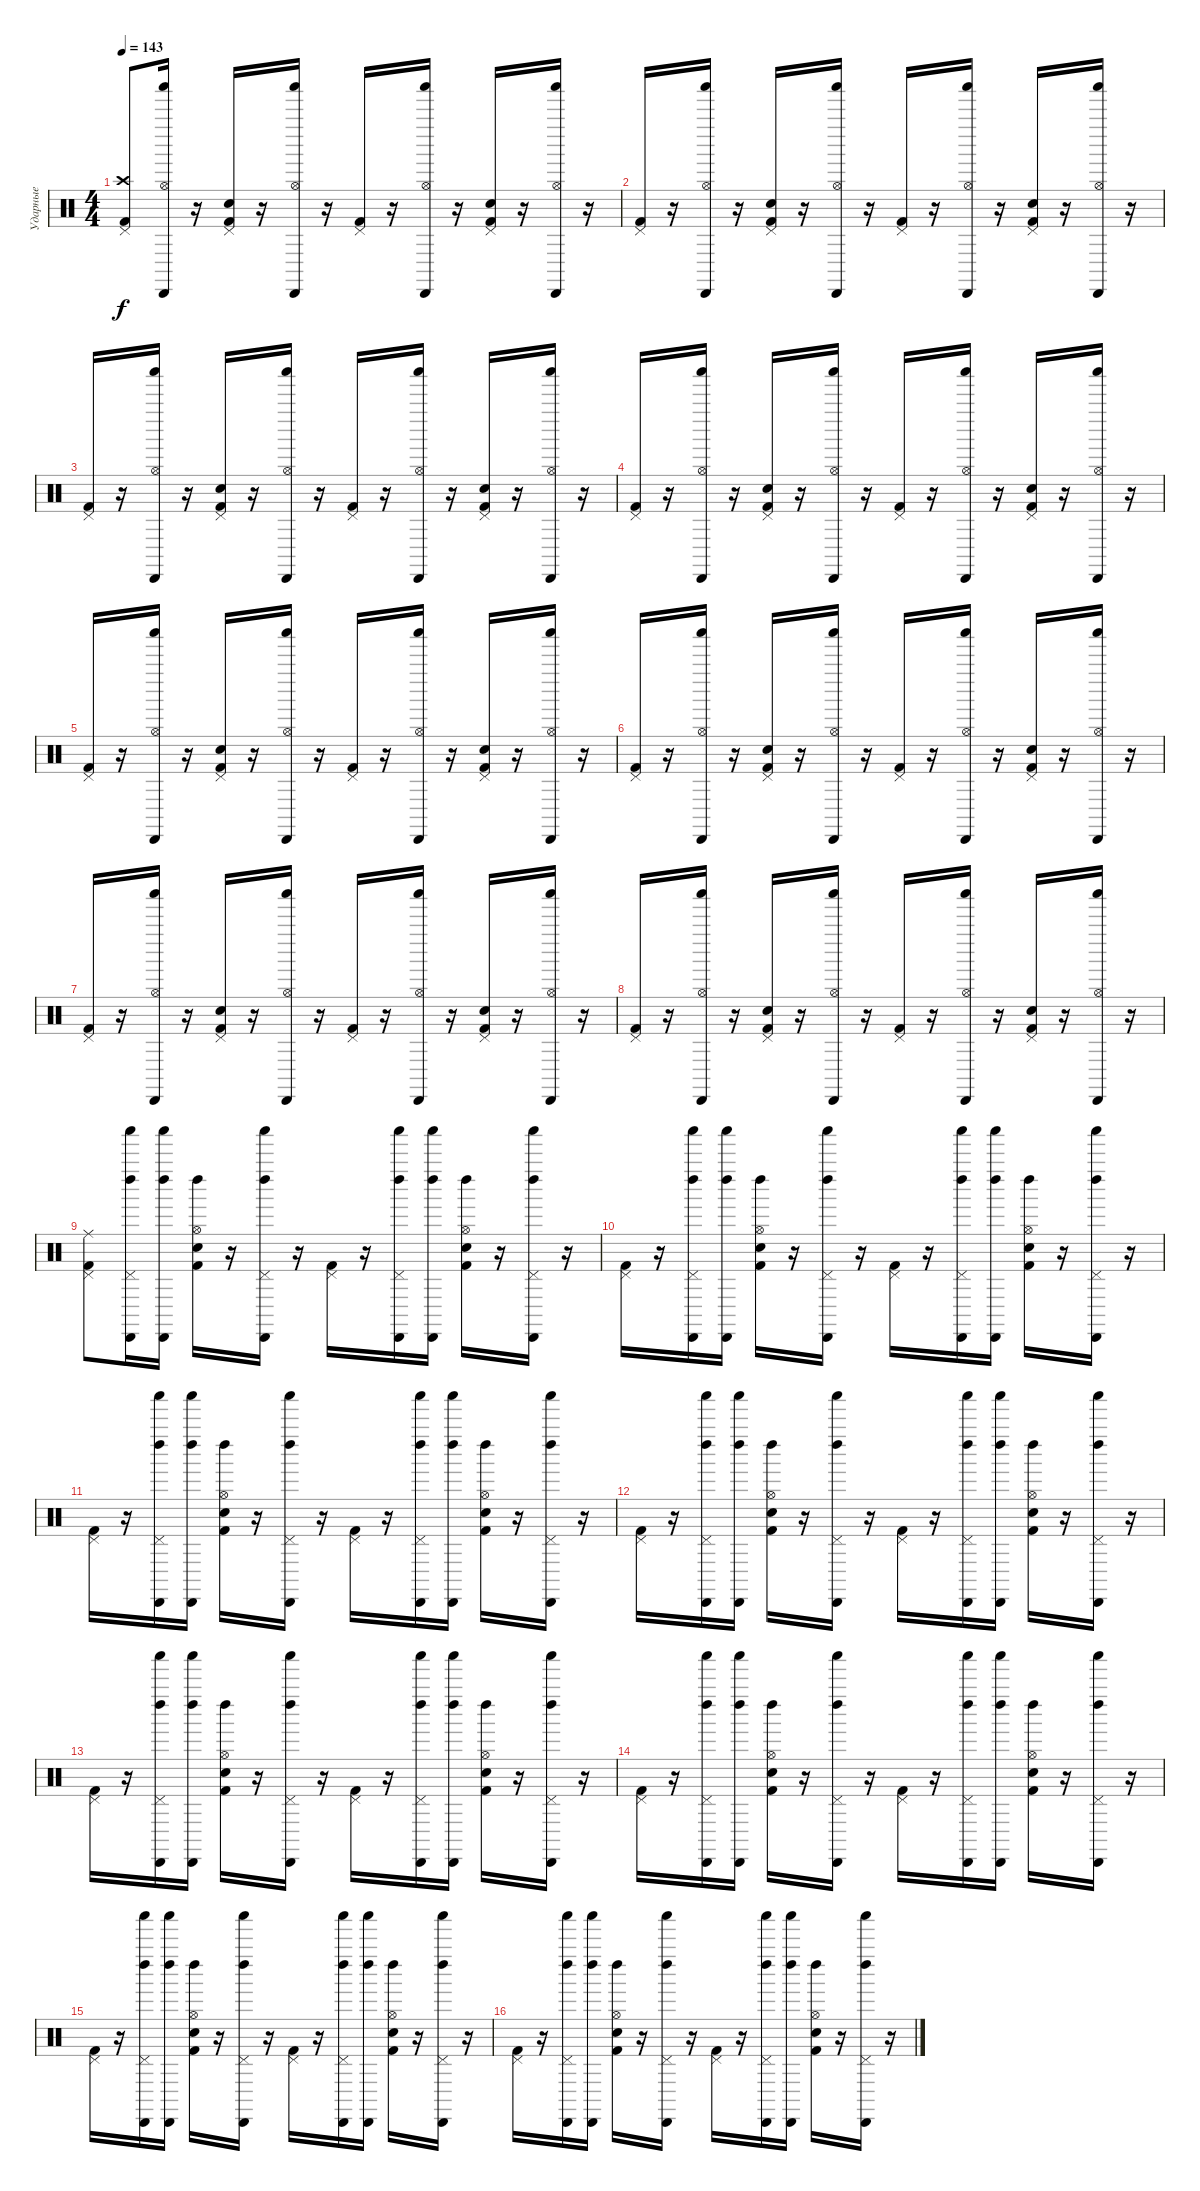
\track ("Ударные" "Ударные") {instrument percussion}
\staff {score}
\articulation defaults
\ts (4 4)
\tempo 143
\clef neutral
\ks c
("Crash high (hit)" "Kick (hit) 2" "Pedal Hi-Hat (hit)").8{dy f} ("Hi-Hat (open)" "Shaker (hit)" "Cabasa (hit)").16 r.16 ("Kick (hit) 2" "Snare (hit) 2" "Pedal Hi-Hat (hit)").16 r.16 ("Hi-Hat (open)" "Shaker (hit)" "Cabasa (hit)").16 r.16 ("Kick (hit) 2" "Pedal Hi-Hat (hit)").16 r.16 ("Hi-Hat (open)" "Shaker (hit)" "Cabasa (hit)").16 r.16 ("Snare (hit) 2" "Kick (hit) 2" "Pedal Hi-Hat (hit)").16 r.16 ("Hi-Hat (open)" "Shaker (hit)" "Cabasa (hit)").16 r.16 |
("Kick (hit) 2" "Pedal Hi-Hat (hit)").16 r.16 ("Hi-Hat (open)" "Shaker (hit)" "Cabasa (hit)").16 r.16 ("Kick (hit) 2" "Snare (hit) 2" "Pedal Hi-Hat (hit)").16 r.16 ("Hi-Hat (open)" "Shaker (hit)" "Cabasa (hit)").16 r.16 ("Kick (hit) 2" "Pedal Hi-Hat (hit)").16 r.16 ("Hi-Hat (open)" "Shaker (hit)" "Cabasa (hit)").16 r.16 ("Snare (hit) 2" "Kick (hit) 2" "Pedal Hi-Hat (hit)").16 r.16 ("Hi-Hat (open)" "Shaker (hit)" "Cabasa (hit)").16 r.16 |
("Kick (hit) 2" "Pedal Hi-Hat (hit)").16 r.16 ("Hi-Hat (open)" "Shaker (hit)" "Cabasa (hit)").16 r.16 ("Snare (hit) 2" "Kick (hit) 2" "Pedal Hi-Hat (hit)").16 r.16 ("Hi-Hat (open)" "Shaker (hit)" "Cabasa (hit)").16 r.16 ("Kick (hit) 2" "Pedal Hi-Hat (hit)").16 r.16 ("Hi-Hat (open)" "Shaker (hit)" "Cabasa (hit)").16 r.16 ("Snare (hit) 2" "Kick (hit) 2" "Pedal Hi-Hat (hit)").16 r.16 ("Hi-Hat (open)" "Shaker (hit)" "Cabasa (hit)").16 r.16 |
("Kick (hit) 2" "Pedal Hi-Hat (hit)").16 r.16 ("Hi-Hat (open)" "Shaker (hit)" "Cabasa (hit)").16 r.16 ("Snare (hit) 2" "Kick (hit) 2" "Pedal Hi-Hat (hit)").16 r.16 ("Hi-Hat (open)" "Shaker (hit)" "Cabasa (hit)").16 r.16 ("Kick (hit) 2" "Pedal Hi-Hat (hit)").16 r.16 ("Hi-Hat (open)" "Shaker (hit)" "Cabasa (hit)").16 r.16 ("Kick (hit) 2" "Snare (hit) 2" "Pedal Hi-Hat (hit)").16 r.16 ("Hi-Hat (open)" "Shaker (hit)" "Cabasa (hit)").16 r.16 |
("Kick (hit) 2" "Pedal Hi-Hat (hit)").16 r.16 ("Hi-Hat (open)" "Shaker (hit)" "Cabasa (hit)").16 r.16 ("Snare (hit) 2" "Kick (hit) 2" "Pedal Hi-Hat (hit)").16 r.16 ("Hi-Hat (open)" "Shaker (hit)" "Cabasa (hit)").16 r.16 ("Kick (hit) 2" "Pedal Hi-Hat (hit)").16 r.16 ("Hi-Hat (open)" "Shaker (hit)" "Cabasa (hit)").16 r.16 ("Snare (hit) 2" "Kick (hit) 2" "Pedal Hi-Hat (hit)").16 r.16 ("Hi-Hat (open)" "Shaker (hit)" "Cabasa (hit)").16 r.16 |
("Kick (hit) 2" "Pedal Hi-Hat (hit)").16 r.16 ("Hi-Hat (open)" "Shaker (hit)" "Cabasa (hit)").16 r.16 ("Kick (hit) 2" "Snare (hit) 2" "Pedal Hi-Hat (hit)").16 r.16 ("Hi-Hat (open)" "Shaker (hit)" "Cabasa (hit)").16 r.16 ("Kick (hit) 2" "Pedal Hi-Hat (hit)").16 r.16 ("Hi-Hat (open)" "Shaker (hit)" "Cabasa (hit)").16 r.16 ("Kick (hit) 2" "Snare (hit) 2" "Pedal Hi-Hat (hit)").16 r.16 ("Hi-Hat (open)" "Shaker (hit)" "Cabasa (hit)").16 r.16 |
("Kick (hit) 2" "Pedal Hi-Hat (hit)").16 r.16 ("Hi-Hat (open)" "Shaker (hit)" "Cabasa (hit)").16 r.16 ("Snare (hit) 2" "Kick (hit) 2" "Pedal Hi-Hat (hit)").16 r.16 ("Hi-Hat (open)" "Shaker (hit)" "Cabasa (hit)").16 r.16 ("Kick (hit) 2" "Pedal Hi-Hat (hit)").16 r.16 ("Hi-Hat (open)" "Shaker (hit)" "Cabasa (hit)").16 r.16 ("Snare (hit) 2" "Kick (hit) 2" "Pedal Hi-Hat (hit)").16 r.16 ("Hi-Hat (open)" "Shaker (hit)" "Cabasa (hit)").16 r.16 |
("Kick (hit) 2" "Pedal Hi-Hat (hit)").16 r.16 ("Hi-Hat (open)" "Shaker (hit)" "Cabasa (hit)").16 r.16 ("Kick (hit) 2" "Snare (hit) 2" "Pedal Hi-Hat (hit)").16 r.16 ("Hi-Hat (open)" "Shaker (hit)" "Cabasa (hit)").16 r.16 ("Kick (hit) 2" "Pedal Hi-Hat (hit)").16 r.16 ("Hi-Hat (open)" "Shaker (hit)" "Cabasa (hit)").16 r.16 ("Kick (hit) 2" "Snare (hit) 2" "Pedal Hi-Hat (hit)").16 r.16 ("Hi-Hat (open)" "Shaker (hit)" "Cabasa (hit)").16 r.16 |
("Ride (middle)" "Kick (hit) 2" "Pedal Hi-Hat (hit)").8 ("Pedal Hi-Hat (hit)" "Left Maraca (hit)" "Shaker (hit)" "Cabasa (hit)").16 ("Left Maraca (hit)" "Shaker (hit)" "Cabasa (hit)").16 ("Kick (hit) 2" "Snare (hit) 2" "Hi-Hat (open)" "Left Maraca (hit)").16 r.16 ("Pedal Hi-Hat (hit)" "Left Maraca (hit)" "Shaker (hit)" "Cabasa (hit)").16 r.16 ("Kick (hit) 2" "Pedal Hi-Hat (hit)").16 r.16 ("Pedal Hi-Hat (hit)" "Left Maraca (hit)" "Shaker (hit)" "Cabasa (hit)").16 ("Left Maraca (hit)" "Shaker (hit)" "Cabasa (hit)").16 ("Snare (hit) 2" "Kick (hit) 2" "Hi-Hat (open)" "Left Maraca (hit)").16 r.16 ("Pedal Hi-Hat (hit)" "Left Maraca (hit)" "Shaker (hit)" "Cabasa (hit)").16 r.16 |
("Kick (hit) 2" "Pedal Hi-Hat (hit)").16 r.16 ("Pedal Hi-Hat (hit)" "Left Maraca (hit)" "Shaker (hit)" "Cabasa (hit)").16 ("Left Maraca (hit)" "Shaker (hit)" "Cabasa (hit)").16 ("Kick (hit) 2" "Snare (hit) 2" "Hi-Hat (open)" "Left Maraca (hit)").16 r.16 ("Pedal Hi-Hat (hit)" "Left Maraca (hit)" "Shaker (hit)" "Cabasa (hit)").16 r.16 ("Kick (hit) 2" "Pedal Hi-Hat (hit)").16 r.16 ("Pedal Hi-Hat (hit)" "Left Maraca (hit)" "Shaker (hit)" "Cabasa (hit)").16 ("Left Maraca (hit)" "Shaker (hit)" "Cabasa (hit)").16 ("Kick (hit) 2" "Snare (hit) 2" "Hi-Hat (open)" "Left Maraca (hit)").16 r.16 ("Pedal Hi-Hat (hit)" "Left Maraca (hit)" "Shaker (hit)" "Cabasa (hit)").16 r.16 |
("Kick (hit) 2" "Pedal Hi-Hat (hit)").16 r.16 ("Pedal Hi-Hat (hit)" "Left Maraca (hit)" "Shaker (hit)" "Cabasa (hit)").16 ("Left Maraca (hit)" "Shaker (hit)" "Cabasa (hit)").16 ("Kick (hit) 2" "Snare (hit) 2" "Hi-Hat (open)" "Left Maraca (hit)").16 r.16 ("Pedal Hi-Hat (hit)" "Left Maraca (hit)" "Shaker (hit)" "Cabasa (hit)").16 r.16 ("Kick (hit) 2" "Pedal Hi-Hat (hit)").16 r.16 ("Pedal Hi-Hat (hit)" "Left Maraca (hit)" "Shaker (hit)" "Cabasa (hit)").16 ("Left Maraca (hit)" "Shaker (hit)" "Cabasa (hit)").16 ("Snare (hit) 2" "Kick (hit) 2" "Hi-Hat (open)" "Left Maraca (hit)").16 r.16 ("Pedal Hi-Hat (hit)" "Left Maraca (hit)" "Shaker (hit)" "Cabasa (hit)").16 r.16 |
("Kick (hit) 2" "Pedal Hi-Hat (hit)").16 r.16 ("Pedal Hi-Hat (hit)" "Left Maraca (hit)" "Shaker (hit)" "Cabasa (hit)").16 ("Left Maraca (hit)" "Shaker (hit)" "Cabasa (hit)").16 ("Kick (hit) 2" "Snare (hit) 2" "Hi-Hat (open)" "Left Maraca (hit)").16 r.16 ("Pedal Hi-Hat (hit)" "Left Maraca (hit)" "Shaker (hit)" "Cabasa (hit)").16 r.16 ("Kick (hit) 2" "Pedal Hi-Hat (hit)").16 r.16 ("Pedal Hi-Hat (hit)" "Left Maraca (hit)" "Shaker (hit)" "Cabasa (hit)").16 ("Left Maraca (hit)" "Shaker (hit)" "Cabasa (hit)").16 ("Snare (hit) 2" "Kick (hit) 2" "Hi-Hat (open)" "Left Maraca (hit)").16 r.16 ("Pedal Hi-Hat (hit)" "Left Maraca (hit)" "Shaker (hit)" "Cabasa (hit)").16 r.16 |
("Kick (hit) 2" "Pedal Hi-Hat (hit)").16 r.16 ("Pedal Hi-Hat (hit)" "Left Maraca (hit)" "Shaker (hit)" "Cabasa (hit)").16 ("Left Maraca (hit)" "Shaker (hit)" "Cabasa (hit)").16 ("Snare (hit) 2" "Kick (hit) 2" "Hi-Hat (open)" "Left Maraca (hit)").16 r.16 ("Pedal Hi-Hat (hit)" "Left Maraca (hit)" "Shaker (hit)" "Cabasa (hit)").16 r.16 ("Kick (hit) 2" "Pedal Hi-Hat (hit)").16 r.16 ("Pedal Hi-Hat (hit)" "Left Maraca (hit)" "Shaker (hit)" "Cabasa (hit)").16 ("Left Maraca (hit)" "Shaker (hit)" "Cabasa (hit)").16 ("Snare (hit) 2" "Kick (hit) 2" "Hi-Hat (open)" "Left Maraca (hit)").16 r.16 ("Pedal Hi-Hat (hit)" "Left Maraca (hit)" "Shaker (hit)" "Cabasa (hit)").16 r.16 |
("Kick (hit) 2" "Pedal Hi-Hat (hit)").16 r.16 ("Pedal Hi-Hat (hit)" "Left Maraca (hit)" "Shaker (hit)" "Cabasa (hit)").16 ("Left Maraca (hit)" "Shaker (hit)" "Cabasa (hit)").16 ("Snare (hit) 2" "Kick (hit) 2" "Hi-Hat (open)" "Left Maraca (hit)").16 r.16 ("Pedal Hi-Hat (hit)" "Left Maraca (hit)" "Shaker (hit)" "Cabasa (hit)").16 r.16 ("Kick (hit) 2" "Pedal Hi-Hat (hit)").16 r.16 ("Pedal Hi-Hat (hit)" "Left Maraca (hit)" "Shaker (hit)" "Cabasa (hit)").16 ("Left Maraca (hit)" "Shaker (hit)" "Cabasa (hit)").16 ("Snare (hit) 2" "Kick (hit) 2" "Hi-Hat (open)" "Left Maraca (hit)").16 r.16 ("Pedal Hi-Hat (hit)" "Left Maraca (hit)" "Shaker (hit)" "Cabasa (hit)").16 r.16 |
("Kick (hit) 2" "Pedal Hi-Hat (hit)").16 r.16 ("Pedal Hi-Hat (hit)" "Left Maraca (hit)" "Shaker (hit)" "Cabasa (hit)").16 ("Left Maraca (hit)" "Shaker (hit)" "Cabasa (hit)").16 ("Snare (hit) 2" "Kick (hit) 2" "Hi-Hat (open)" "Left Maraca (hit)").16 r.16 ("Pedal Hi-Hat (hit)" "Left Maraca (hit)" "Shaker (hit)" "Cabasa (hit)").16 r.16 ("Kick (hit) 2" "Pedal Hi-Hat (hit)").16 r.16 ("Pedal Hi-Hat (hit)" "Left Maraca (hit)" "Shaker (hit)" "Cabasa (hit)").16 ("Left Maraca (hit)" "Shaker (hit)" "Cabasa (hit)").16 ("Kick (hit) 2" "Snare (hit) 2" "Hi-Hat (open)" "Left Maraca (hit)").16 r.16 ("Pedal Hi-Hat (hit)" "Left Maraca (hit)" "Shaker (hit)" "Cabasa (hit)").16 r.16 |
("Kick (hit) 2" "Pedal Hi-Hat (hit)").16 r.16 ("Pedal Hi-Hat (hit)" "Left Maraca (hit)" "Shaker (hit)" "Cabasa (hit)").16 ("Left Maraca (hit)" "Shaker (hit)" "Cabasa (hit)").16 ("Kick (hit) 2" "Snare (hit) 2" "Hi-Hat (open)" "Left Maraca (hit)").16 r.16 ("Pedal Hi-Hat (hit)" "Left Maraca (hit)" "Shaker (hit)" "Cabasa (hit)").16 r.16 ("Kick (hit) 2" "Pedal Hi-Hat (hit)").16 r.16 ("Pedal Hi-Hat (hit)" "Left Maraca (hit)" "Shaker (hit)" "Cabasa (hit)").16 ("Left Maraca (hit)" "Shaker (hit)" "Cabasa (hit)").16 ("Kick (hit) 2" "Snare (hit) 2" "Hi-Hat (open)" "Left Maraca (hit)").16 r.16 ("Pedal Hi-Hat (hit)" "Left Maraca (hit)" "Shaker (hit)" "Cabasa (hit)").16 r.16
